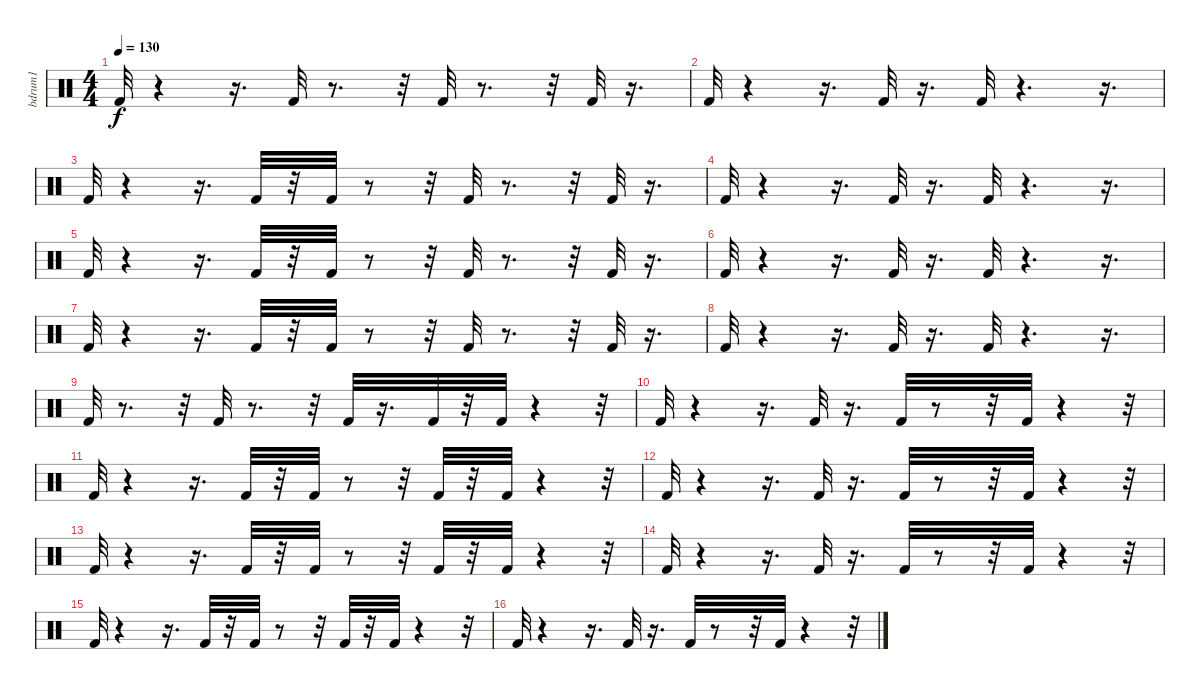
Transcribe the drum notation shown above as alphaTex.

\track ("bdrum1              " "bdrum1    ") {instrument percussion}
\staff {score}
\articulation defaults
\ts (4 4)
\tempo 130
\clef neutral
\ks c "Kick (hit) 2".32{dy f}
r.4 r.16{d} "Kick (hit) 2".32 r.8{d} r.32 "Kick (hit) 2".32 r.8{d} r.32 "Kick (hit) 2".32 r.16{d} |
"Kick (hit) 2".32 r.4 r.16{d} "Kick (hit) 2".32 r.16{d} "Kick (hit) 2".32 r.4{d} r.16{d} |
"Kick (hit) 2".32 r.4 r.16{d} "Kick (hit) 2".32 r.32 "Kick (hit) 2".32 r.8 r.32 "Kick (hit) 2".32 r.8{d} r.32 "Kick (hit) 2".32 r.16{d} |
"Kick (hit) 2".32 r.4 r.16{d} "Kick (hit) 2".32 r.16{d} "Kick (hit) 2".32 r.4{d} r.16{d} |
"Kick (hit) 2".32 r.4 r.16{d} "Kick (hit) 2".32 r.32 "Kick (hit) 2".32 r.8 r.32 "Kick (hit) 2".32 r.8{d} r.32 "Kick (hit) 2".32 r.16{d} |
"Kick (hit) 2".32 r.4 r.16{d} "Kick (hit) 2".32 r.16{d} "Kick (hit) 2".32 r.4{d} r.16{d} |
"Kick (hit) 2".32 r.4 r.16{d} "Kick (hit) 2".32 r.32 "Kick (hit) 2".32 r.8 r.32 "Kick (hit) 2".32 r.8{d} r.32 "Kick (hit) 2".32 r.16{d} |
"Kick (hit) 2".32 r.4 r.16{d} "Kick (hit) 2".32 r.16{d} "Kick (hit) 2".32 r.4{d} r.16{d} |
"Kick (hit) 2".32 r.8{d} r.32 "Kick (hit) 2".32 r.8{d} r.32 "Kick (hit) 2".32 r.16{d} "Kick (hit) 2".32 r.32 "Kick (hit) 2".32 r.4 r.32 |
"Kick (hit) 2".32 r.4 r.16{d} "Kick (hit) 2".32 r.16{d} "Kick (hit) 2".32 r.8 r.32 "Kick (hit) 2".32 r.4 r.32 |
"Kick (hit) 2".32 r.4 r.16{d} "Kick (hit) 2".32 r.32 "Kick (hit) 2".32 r.8 r.32 "Kick (hit) 2".32 r.32 "Kick (hit) 2".32 r.4 r.32 |
"Kick (hit) 2".32 r.4 r.16{d} "Kick (hit) 2".32 r.16{d} "Kick (hit) 2".32 r.8 r.32 "Kick (hit) 2".32 r.4 r.32 |
"Kick (hit) 2".32 r.4 r.16{d} "Kick (hit) 2".32 r.32 "Kick (hit) 2".32 r.8 r.32 "Kick (hit) 2".32 r.32 "Kick (hit) 2".32 r.4 r.32 |
"Kick (hit) 2".32 r.4 r.16{d} "Kick (hit) 2".32 r.16{d} "Kick (hit) 2".32 r.8 r.32 "Kick (hit) 2".32 r.4 r.32 |
"Kick (hit) 2".32 r.4 r.16{d} "Kick (hit) 2".32 r.32 "Kick (hit) 2".32 r.8 r.32 "Kick (hit) 2".32 r.32 "Kick (hit) 2".32 r.4 r.32 |
"Kick (hit) 2".32 r.4 r.16{d} "Kick (hit) 2".32 r.16{d} "Kick (hit) 2".32 r.8 r.32 "Kick (hit) 2".32 r.4 r.32
